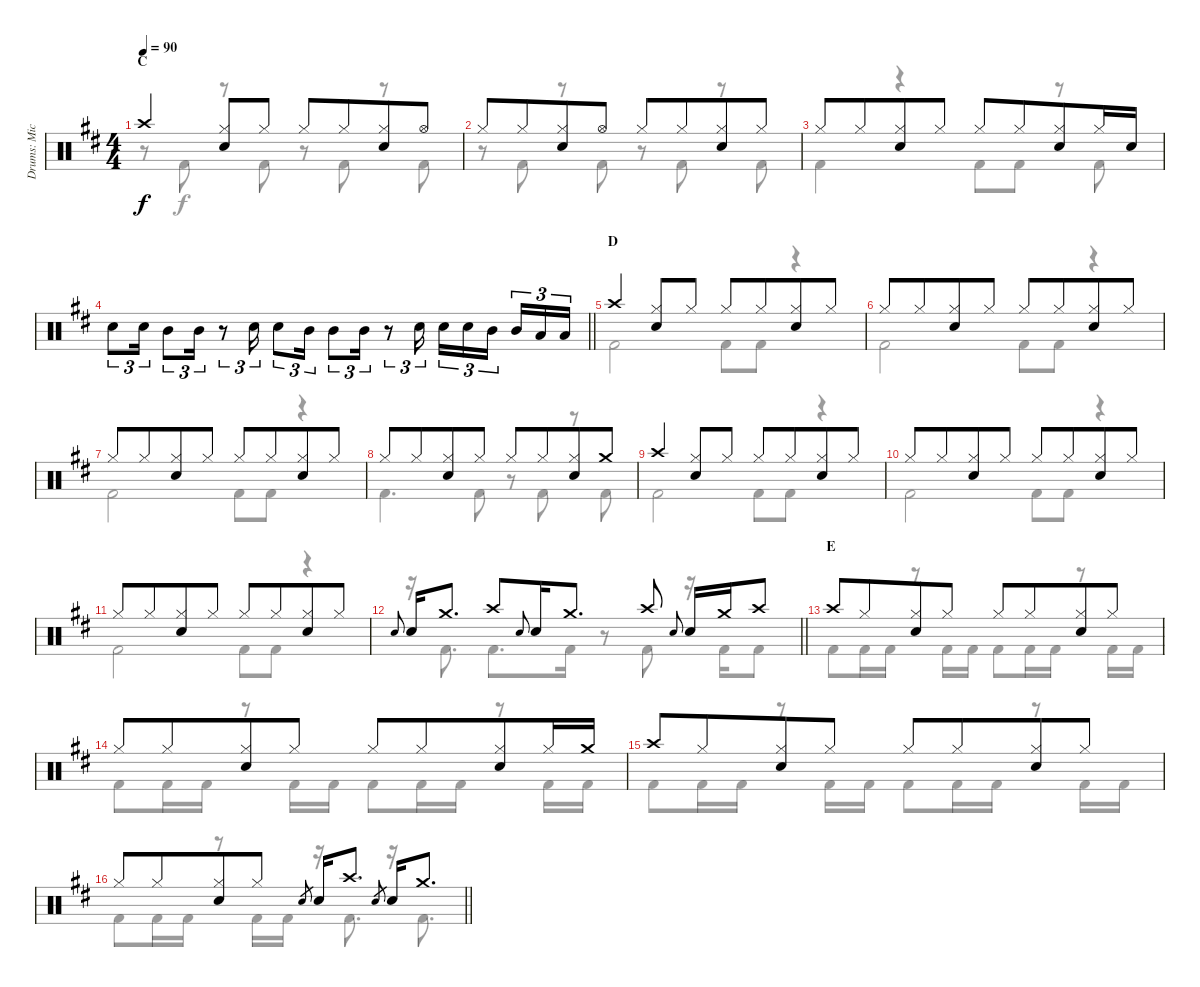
\track ("Drums: Mick" "Drums: Mic") {instrument percussion}
\staff {score}
\articulation defaults
\voice
\ts (4 4)
\section ("" "C")
\tempo 90
\clef neutral
\ks d "Crash high (hit)".4{dy f}
("Hi-Hat (closed)" "Snare (hit) 2").8 "Hi-Hat (closed)".8 "Hi-Hat (closed)".8 "Hi-Hat (closed)".8{beam merge} ("Hi-Hat (closed)" "Snare (hit) 2").8 "Hi-Hat (open)".8 |
"Hi-Hat (closed)".8 "Hi-Hat (closed)".8{beam merge} ("Hi-Hat (closed)" "Snare (hit) 2").8 "Hi-Hat (open)".8 "Hi-Hat (closed)".8 "Hi-Hat (closed)".8{beam merge} ("Hi-Hat (closed)" "Snare (hit) 2").8 "Hi-Hat (closed)".8 |
"Hi-Hat (closed)".8 "Hi-Hat (closed)".8{beam merge} ("Hi-Hat (closed)" "Snare (hit) 2").8 "Hi-Hat (closed)".8 "Hi-Hat (closed)".8 "Hi-Hat (closed)".8{beam merge} ("Hi-Hat (closed)" "Snare (hit) 2").8 "Hi-Hat (closed)".16 "Snare (hit) 2".16 |
\barLineRight lightlight "Snare (hit) 2".8{tu (3 2)} "Snare (hit) 2".16{tu (3 2)} "Mid Tom (hit)".8{tu (3 2)} "Mid Tom (hit)".16{tu (3 2)}
r.8{tu (3 2)} "Snare (hit) 2".16{tu (3 2)} "Snare (hit) 2".8{tu (3 2)} "Mid Tom (hit)".16{tu (3 2)} "Mid Tom (hit)".8{tu (3 2)} "Mid Tom (hit)".16{tu (3 2)} r.8{tu (3 2)} "Snare (hit) 2".16{tu (3 2)} "Snare (hit) 2".16{tu (3 2)} "Snare (hit) 2".16{tu (3 2)} "Mid Tom (hit)".16{tu (3 2) beam splitsecondary} "Mid Tom (hit)".16{tu (3 2)} "Low Tom (hit)".16{tu (3 2)} "Low Tom (hit)".16{tu (3 2)} |
\section ("" "D")
"Crash high (hit)".4 ("Hi-Hat (closed)" "Snare (hit) 2").8 "Hi-Hat (closed)".8 "Hi-Hat (closed)".8 "Hi-Hat (closed)".8{beam merge} ("Hi-Hat (closed)" "Snare (hit) 2").8 "Hi-Hat (closed)".8 |
"Hi-Hat (closed)".8 "Hi-Hat (closed)".8{beam merge} ("Hi-Hat (closed)" "Snare (hit) 2").8 "Hi-Hat (closed)".8 "Hi-Hat (closed)".8 "Hi-Hat (closed)".8{beam merge} ("Hi-Hat (closed)" "Snare (hit) 2").8 "Hi-Hat (closed)".8 |
"Hi-Hat (closed)".8 "Hi-Hat (closed)".8{beam merge} ("Hi-Hat (closed)" "Snare (hit) 2").8 "Hi-Hat (closed)".8 "Hi-Hat (closed)".8 "Hi-Hat (closed)".8{beam merge} ("Hi-Hat (closed)" "Snare (hit) 2").8 "Hi-Hat (closed)".8 |
"Hi-Hat (closed)".8 "Hi-Hat (closed)".8{beam merge} ("Hi-Hat (closed)" "Snare (hit) 2").8 "Hi-Hat (closed)".8 "Hi-Hat (closed)".8 "Hi-Hat (closed)".8{beam merge} ("Hi-Hat (closed)" "Snare (hit) 2").8 "Crash medium (hit)".8 |
"Crash high (hit)".4 ("Hi-Hat (closed)" "Snare (hit) 2").8 "Hi-Hat (closed)".8 "Hi-Hat (closed)".8 "Hi-Hat (closed)".8{beam merge} ("Hi-Hat (closed)" "Snare (hit) 2").8 "Hi-Hat (closed)".8 |
"Hi-Hat (closed)".8 "Hi-Hat (closed)".8{beam merge} ("Hi-Hat (closed)" "Snare (hit) 2").8 "Hi-Hat (closed)".8 "Hi-Hat (closed)".8 "Hi-Hat (closed)".8{beam merge} ("Hi-Hat (closed)" "Snare (hit) 2").8 "Hi-Hat (closed)".8 |
"Hi-Hat (closed)".8 "Hi-Hat (closed)".8{beam merge} ("Hi-Hat (closed)" "Snare (hit) 2").8 "Hi-Hat (closed)".8 "Hi-Hat (closed)".8 "Hi-Hat (closed)".8{beam merge} ("Hi-Hat (closed)" "Snare (hit) 2").8 "Hi-Hat (closed)".8 |
\barLineRight lightlight "Electric Snare (hit)".8{gr onbeat beam merge} "Snare (hit) 2".16 "Crash medium (hit)".8{d} "Crash high (hit)".8 "Electric Snare (hit)".8{gr onbeat beam merge} "Snare (hit) 2".16 "Crash medium (hit)".8{d} "Crash high (hit)".8 "Electric Snare (hit)".8{gr onbeat beam merge} "Snare (hit) 2".16 "Crash medium (hit)".16 "Crash high (hit)".8
|
\section ("" "E")
"Crash high (hit)".8 "Hi-Hat (closed)".8{beam merge} ("Hi-Hat (closed)" "Snare (hit) 2").8 "Hi-Hat (closed)".8 "Hi-Hat (closed)".8 "Hi-Hat (closed)".8{beam merge} ("Hi-Hat (closed)" "Snare (hit) 2").8 "Hi-Hat (closed)".8 |
"Hi-Hat (closed)".8 "Hi-Hat (closed)".8{beam merge} ("Hi-Hat (closed)" "Snare (hit) 2").8 "Hi-Hat (closed)".8 "Hi-Hat (closed)".8 "Hi-Hat (closed)".8{beam merge} ("Hi-Hat (closed)" "Snare (hit) 2").8 "Hi-Hat (closed)".16 "Crash medium (hit)".16 |
"Crash high (hit)".8 "Hi-Hat (closed)".8{beam merge} ("Hi-Hat (closed)" "Snare (hit) 2").8 "Hi-Hat (closed)".8 "Hi-Hat (closed)".8 "Hi-Hat (closed)".8{beam merge} ("Hi-Hat (closed)" "Snare (hit) 2").8 "Hi-Hat (closed)".8 |
\barLineRight lightlight "Hi-Hat (closed)".8 "Hi-Hat (closed)".8{beam merge}
("Hi-Hat (closed)" "Snare (hit) 2").8 "Hi-Hat (closed)".8 "Electric Snare (hit)".8{gr beam merge} "Snare (hit) 2".16 "Crash high (hit)".8{d} "Electric Snare (hit)".8{gr beam merge} "Snare (hit) 2".16 "Crash medium (hit)".8{d}
\voice
\clef neutral
\ottava regular
\simile none
\ks d
r.8{dy f} "Kick (hit) 2".8 r.8 "Kick (hit) 2".8 r.8 "Kick (hit) 2".8 r.8 "Kick (hit) 2".8 |
r.8 "Kick (hit) 2".8 r.8 "Kick (hit) 2".8 r.8 "Kick (hit) 2".8 r.8 "Kick (hit) 2".8 |
"Kick (hit) 2".4 r.4 "Kick (hit) 2".8 "Kick (hit) 2".8 r.8 "Kick (hit) 2".8 |
\barLineRight lightlight
|
"Kick (hit) 2".2 "Kick (hit) 2".8 "Kick (hit) 2".8 r.4 |
"Kick (hit) 2".2 "Kick (hit) 2".8 "Kick (hit) 2".8 r.4 |
"Kick (hit) 2".2 "Kick (hit) 2".8 "Kick (hit) 2".8 r.4 |
"Kick (hit) 2".4{d} "Kick (hit) 2".8 r.8 "Kick (hit) 2".8 r.8 "Kick (hit) 2".8 |
"Kick (hit) 2".2 "Kick (hit) 2".8 "Kick (hit) 2".8 r.4 |
"Kick (hit) 2".2 "Kick (hit) 2".8 "Kick (hit) 2".8 r.4 |
"Kick (hit) 2".2 "Kick (hit) 2".8 "Kick (hit) 2".8 r.4 |
\barLineRight lightlight
r.16 "Kick (hit) 2".8{d} "Kick (hit) 2".8{d} "Kick (hit) 2".16 r.8 "Kick (hit) 2".8 r.16 "Kick (hit) 2".16 "Kick (hit) 2".8 |
"Kick (hit) 2".8 "Kick (hit) 2".16 "Kick (hit) 2".16 r.8 "Kick (hit) 2".16 "Kick (hit) 2".16 "Kick (hit) 2".8 "Kick (hit) 2".16 "Kick (hit) 2".16 r.8 "Kick (hit) 2".16 "Kick (hit) 2".16 |
"Kick (hit) 2".8 "Kick (hit) 2".16 "Kick (hit) 2".16 r.8 "Kick (hit) 2".16 "Kick (hit) 2".16 "Kick (hit) 2".8 "Kick (hit) 2".16 "Kick (hit) 2".16 r.8 "Kick (hit) 2".16 "Kick (hit) 2".16 |
"Kick (hit) 2".8 "Kick (hit) 2".16 "Kick (hit) 2".16 r.8 "Kick (hit) 2".16 "Kick (hit) 2".16 "Kick (hit) 2".8 "Kick (hit) 2".16 "Kick (hit) 2".16 r.8 "Kick (hit) 2".16 "Kick (hit) 2".16 |
\barLineRight lightlight "Kick (hit) 2".8 "Kick (hit) 2".16 "Kick (hit) 2".16
r.8 "Kick (hit) 2".16 "Kick (hit) 2".16 r.16 "Kick (hit) 2".8{d} r.16 "Kick (hit) 2".8{d}
